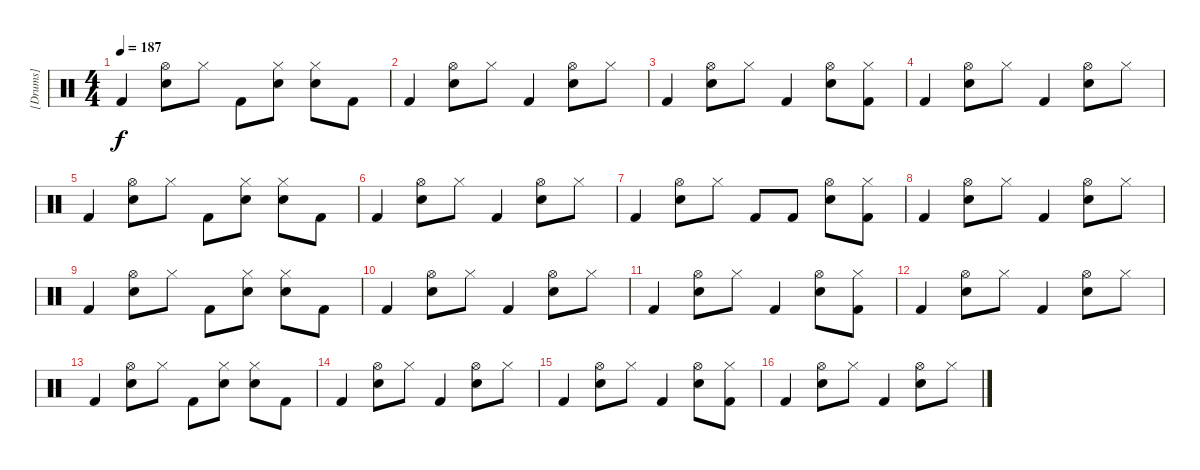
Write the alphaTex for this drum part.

\track ("[Drums]" "[Drums]") {instrument percussion}
\staff {score}
\articulation defaults
\ts (4 4)
\tempo 187
\clef neutral
\ks c "Kick (hit) 2".4{dy f}
("Hi-Hat (open)" "Electric Snare (hit)").8 "Hi-Hat (closed)".8 "Kick (hit) 2".8 ("Hi-Hat (closed)" "Electric Snare (hit)").8 ("Hi-Hat (closed)" "Electric Snare (hit)").8 "Kick (hit) 2".8 |
"Kick (hit) 2".4 ("Hi-Hat (open)" "Electric Snare (hit)").8 "Hi-Hat (closed)".8 "Kick (hit) 2".4 ("Hi-Hat (open)" "Electric Snare (hit)").8 "Hi-Hat (closed)".8 |
"Kick (hit) 2".4 ("Hi-Hat (open)" "Electric Snare (hit)").8 "Hi-Hat (closed)".8 "Kick (hit) 2".4 ("Hi-Hat (open)" "Electric Snare (hit)").8 ("Hi-Hat (closed)" "Kick (hit) 2").8 |
"Kick (hit) 2".4 ("Hi-Hat (open)" "Electric Snare (hit)").8 "Hi-Hat (closed)".8 "Kick (hit) 2".4 ("Hi-Hat (open)" "Electric Snare (hit)").8 "Hi-Hat (closed)".8 |
"Kick (hit) 2".4 ("Hi-Hat (open)" "Electric Snare (hit)").8 "Hi-Hat (closed)".8 "Kick (hit) 2".8 ("Hi-Hat (closed)" "Electric Snare (hit)").8 ("Hi-Hat (closed)" "Electric Snare (hit)").8 "Kick (hit) 2".8 |
"Kick (hit) 2".4 ("Hi-Hat (open)" "Electric Snare (hit)").8 "Hi-Hat (closed)".8 "Kick (hit) 2".4 ("Hi-Hat (open)" "Electric Snare (hit)").8 "Hi-Hat (closed)".8 |
"Kick (hit) 2".4 ("Hi-Hat (open)" "Electric Snare (hit)").8 "Hi-Hat (closed)".8 "Kick (hit) 2".8 "Kick (hit) 2".8 ("Hi-Hat (open)" "Electric Snare (hit)").8 ("Hi-Hat (closed)" "Kick (hit) 2").8 |
"Kick (hit) 2".4 ("Hi-Hat (open)" "Electric Snare (hit)").8 "Hi-Hat (closed)".8 "Kick (hit) 2".4 ("Hi-Hat (open)" "Electric Snare (hit)").8 "Hi-Hat (closed)".8 |
"Kick (hit) 2".4 ("Hi-Hat (open)" "Electric Snare (hit)").8 "Hi-Hat (closed)".8 "Kick (hit) 2".8 ("Hi-Hat (closed)" "Electric Snare (hit)").8 ("Hi-Hat (closed)" "Electric Snare (hit)").8 "Kick (hit) 2".8 |
"Kick (hit) 2".4 ("Hi-Hat (open)" "Electric Snare (hit)").8 "Hi-Hat (closed)".8 "Kick (hit) 2".4 ("Hi-Hat (open)" "Electric Snare (hit)").8 "Hi-Hat (closed)".8 |
"Kick (hit) 2".4 ("Hi-Hat (open)" "Electric Snare (hit)").8 "Hi-Hat (closed)".8 "Kick (hit) 2".4 ("Hi-Hat (open)" "Electric Snare (hit)").8 ("Hi-Hat (closed)" "Kick (hit) 2").8 |
"Kick (hit) 2".4 ("Hi-Hat (open)" "Electric Snare (hit)").8 "Hi-Hat (closed)".8 "Kick (hit) 2".4 ("Hi-Hat (open)" "Electric Snare (hit)").8 "Hi-Hat (closed)".8 |
"Kick (hit) 2".4 ("Hi-Hat (open)" "Electric Snare (hit)").8 "Hi-Hat (closed)".8 "Kick (hit) 2".8 ("Hi-Hat (closed)" "Electric Snare (hit)").8 ("Hi-Hat (closed)" "Electric Snare (hit)").8 "Kick (hit) 2".8 |
"Kick (hit) 2".4 ("Hi-Hat (open)" "Electric Snare (hit)").8 "Hi-Hat (closed)".8 "Kick (hit) 2".4 ("Hi-Hat (open)" "Electric Snare (hit)").8 "Hi-Hat (closed)".8 |
"Kick (hit) 2".4 ("Hi-Hat (open)" "Electric Snare (hit)").8 "Hi-Hat (closed)".8 "Kick (hit) 2".4 ("Hi-Hat (open)" "Electric Snare (hit)").8 ("Hi-Hat (closed)" "Kick (hit) 2").8 |
"Kick (hit) 2".4 ("Hi-Hat (open)" "Electric Snare (hit)").8 "Hi-Hat (closed)".8 "Kick (hit) 2".4 ("Hi-Hat (open)" "Electric Snare (hit)").8 "Hi-Hat (closed)".8
